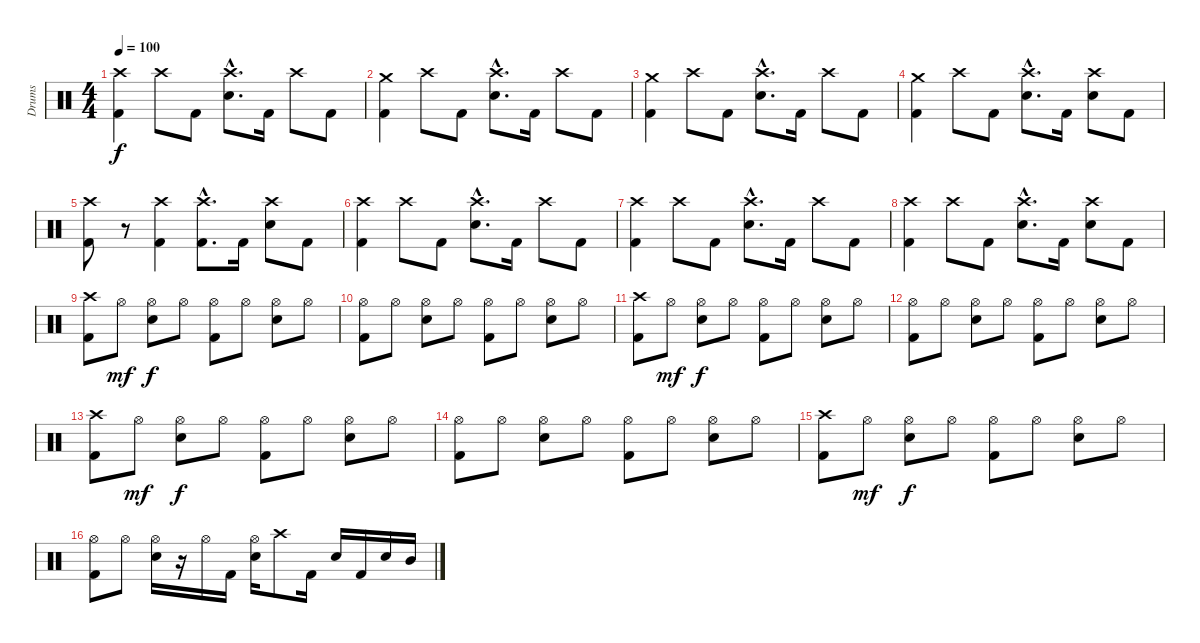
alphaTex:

\track ("Drums" "Drums") {instrument percussion}
\staff {score}
\articulation defaults
\ts (4 4)
\tempo 100
\clef neutral
\ks c
("Crash high (hit)" "Kick (hit) 2").4{dy f} "Crash high (hit)".8 "Kick (hit) 2".8 ("Crash high (hit)"{hac} "Snare (hit) 2"{hac}).8{d} "Kick (hit) 2".16 "Crash high (hit)".8 "Kick (hit) 2".8 |
("Crash medium (hit)" "Kick (hit) 2").4 "Crash high (hit)".8 "Kick (hit) 2".8 ("Crash high (hit)"{hac} "Snare (hit) 2"{hac}).8{d} "Kick (hit) 2".16 "Crash high (hit)".8 "Kick (hit) 2".8 |
("Crash medium (hit)" "Kick (hit) 2").4 "Crash high (hit)".8 "Kick (hit) 2".8 ("Crash high (hit)"{hac} "Snare (hit) 2"{hac}).8{d} "Kick (hit) 2".16 "Crash high (hit)".8 "Kick (hit) 2".8 |
("Crash medium (hit)" "Kick (hit) 2").4 "Crash high (hit)".8 "Kick (hit) 2".8 ("Crash high (hit)"{hac} "Snare (hit) 2"{hac}).8{d} "Kick (hit) 2".16 ("Crash high (hit)" "Snare (hit) 2").8 "Kick (hit) 2".8 |
("Crash high (hit)" "Kick (hit) 2").8 r.8 ("Crash high (hit)" "Kick (hit) 2").4 ("Crash high (hit)"{hac} "Kick (hit) 2"{hac}).8{d} "Kick (hit) 2".16 ("Crash high (hit)" "Snare (hit) 2").8 "Kick (hit) 2".8 |
("Crash high (hit)" "Kick (hit) 2").4 "Crash high (hit)".8 "Kick (hit) 2".8 ("Crash high (hit)"{hac} "Snare (hit) 2"{hac}).8{d} "Kick (hit) 2".16 "Crash high (hit)".8 "Kick (hit) 2".8 |
("Crash high (hit)" "Kick (hit) 2").4 "Crash high (hit)".8 "Kick (hit) 2".8 ("Crash high (hit)"{hac} "Snare (hit) 2"{hac}).8{d} "Kick (hit) 2".16 "Crash high (hit)".8 "Kick (hit) 2".8 |
("Crash high (hit)" "Kick (hit) 2").4 "Crash high (hit)".8 "Kick (hit) 2".8 ("Crash high (hit)"{hac} "Snare (hit) 2"{hac}).8{d} "Kick (hit) 2".16 ("Crash high (hit)" "Snare (hit) 2").8 "Kick (hit) 2".8 |
("Crash high (hit)" "Kick (hit) 2").8 "Hi-Hat (open)".8{dy mf} ("Hi-Hat (open)" "Snare (hit) 2").8{dy f} "Hi-Hat (open)".8 ("Hi-Hat (open)" "Kick (hit) 2").8 "Hi-Hat (open)".8 ("Hi-Hat (open)" "Snare (hit) 2").8 "Hi-Hat (open)".8 |
("Hi-Hat (open)" "Kick (hit) 2").8 "Hi-Hat (open)".8 ("Hi-Hat (open)" "Snare (hit) 2").8 "Hi-Hat (open)".8 ("Hi-Hat (open)" "Kick (hit) 2").8 "Hi-Hat (open)".8 ("Hi-Hat (open)" "Snare (hit) 2").8 "Hi-Hat (open)".8 |
("Crash high (hit)" "Kick (hit) 2").8 "Hi-Hat (open)".8{dy mf} ("Hi-Hat (open)" "Snare (hit) 2").8{dy f} "Hi-Hat (open)".8 ("Hi-Hat (open)" "Kick (hit) 2").8 "Hi-Hat (open)".8 ("Hi-Hat (open)" "Snare (hit) 2").8 "Hi-Hat (open)".8 |
("Hi-Hat (open)" "Kick (hit) 2").8 "Hi-Hat (open)".8 ("Hi-Hat (open)" "Snare (hit) 2").8 "Hi-Hat (open)".8 ("Hi-Hat (open)" "Kick (hit) 2").8 "Hi-Hat (open)".8 ("Hi-Hat (open)" "Snare (hit) 2").8 "Hi-Hat (open)".8 |
("Crash high (hit)" "Kick (hit) 2").8 "Hi-Hat (open)".8{dy mf} ("Hi-Hat (open)" "Snare (hit) 2").8{dy f} "Hi-Hat (open)".8 ("Hi-Hat (open)" "Kick (hit) 2").8 "Hi-Hat (open)".8 ("Hi-Hat (open)" "Snare (hit) 2").8 "Hi-Hat (open)".8 |
("Hi-Hat (open)" "Kick (hit) 2").8 "Hi-Hat (open)".8 ("Hi-Hat (open)" "Snare (hit) 2").8 "Hi-Hat (open)".8 ("Hi-Hat (open)" "Kick (hit) 2").8 "Hi-Hat (open)".8 ("Hi-Hat (open)" "Snare (hit) 2").8 "Hi-Hat (open)".8 |
("Crash high (hit)" "Kick (hit) 2").8 "Hi-Hat (open)".8{dy mf} ("Hi-Hat (open)" "Snare (hit) 2").8{dy f} "Hi-Hat (open)".8 ("Hi-Hat (open)" "Kick (hit) 2").8 "Hi-Hat (open)".8 ("Hi-Hat (open)" "Snare (hit) 2").8 "Hi-Hat (open)".8 |
("Hi-Hat (open)" "Kick (hit) 2").8 "Hi-Hat (open)".8 ("Hi-Hat (open)" "Snare (hit) 2").16 r.16 "Hi-Hat (open)".16 "Kick (hit) 2".16 ("Hi-Hat (open)" "Snare (hit) 2").16 "Crash high (hit)".8 "Kick (hit) 2".16 "Snare (hit) 2".16 "Kick (hit) 2".16 "Snare (hit) 2".16 "Mid Tom (hit)".16
